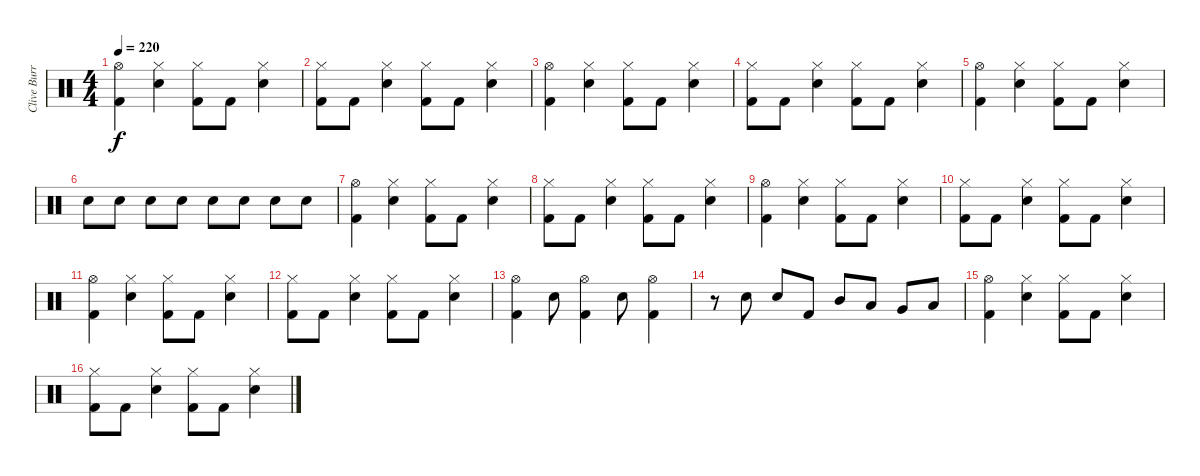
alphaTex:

\track ("Clive Burr (Drums)" "Clive Burr") {instrument percussion}
\staff {score}
\articulation defaults
\ts (4 4)
\tempo 220
\clef neutral
\ks c
("Hi-Hat (open)" "Kick (hit) 2").4{dy f} ("Electric Snare (hit)" "Hi-Hat (closed)").4 ("Hi-Hat (closed)" "Kick (hit) 2").8 "Kick (hit) 2".8 ("Electric Snare (hit)" "Hi-Hat (closed)").4 |
("Hi-Hat (closed)" "Kick (hit) 2").8 "Kick (hit) 2".8 ("Electric Snare (hit)" "Hi-Hat (closed)").4 ("Hi-Hat (closed)" "Kick (hit) 2").8 "Kick (hit) 2".8 ("Electric Snare (hit)" "Hi-Hat (closed)").4 |
("Hi-Hat (open)" "Kick (hit) 2").4 ("Electric Snare (hit)" "Hi-Hat (closed)").4 ("Hi-Hat (closed)" "Kick (hit) 2").8 "Kick (hit) 2".8 ("Electric Snare (hit)" "Hi-Hat (closed)").4 |
("Hi-Hat (closed)" "Kick (hit) 2").8 "Kick (hit) 2".8 ("Electric Snare (hit)" "Hi-Hat (closed)").4 ("Hi-Hat (closed)" "Kick (hit) 2").8 "Kick (hit) 2".8 ("Electric Snare (hit)" "Hi-Hat (closed)").4 |
("Hi-Hat (open)" "Kick (hit) 2").4 ("Electric Snare (hit)" "Hi-Hat (closed)").4 ("Hi-Hat (closed)" "Kick (hit) 2").8 "Kick (hit) 2".8 ("Electric Snare (hit)" "Hi-Hat (closed)").4 |
"Electric Snare (hit)".8 "Electric Snare (hit)".8 "Electric Snare (hit)".8 "Electric Snare (hit)".8 "Electric Snare (hit)".8 "Electric Snare (hit)".8 "Electric Snare (hit)".8 "Electric Snare (hit)".8 |
("Hi-Hat (open)" "Kick (hit) 2").4 ("Electric Snare (hit)" "Hi-Hat (closed)").4 ("Hi-Hat (closed)" "Kick (hit) 2").8 "Kick (hit) 2".8 ("Electric Snare (hit)" "Hi-Hat (closed)").4 |
("Hi-Hat (closed)" "Kick (hit) 2").8 "Kick (hit) 2".8 ("Electric Snare (hit)" "Hi-Hat (closed)").4 ("Hi-Hat (closed)" "Kick (hit) 2").8 "Kick (hit) 2".8 ("Electric Snare (hit)" "Hi-Hat (closed)").4 |
("Hi-Hat (open)" "Kick (hit) 2").4 ("Electric Snare (hit)" "Hi-Hat (closed)").4 ("Hi-Hat (closed)" "Kick (hit) 2").8 "Kick (hit) 2".8 ("Electric Snare (hit)" "Hi-Hat (closed)").4 |
("Hi-Hat (closed)" "Kick (hit) 2").8 "Kick (hit) 2".8 ("Electric Snare (hit)" "Hi-Hat (closed)").4 ("Hi-Hat (closed)" "Kick (hit) 2").8 "Kick (hit) 2".8 ("Electric Snare (hit)" "Hi-Hat (closed)").4 |
("Hi-Hat (open)" "Kick (hit) 2").4 ("Electric Snare (hit)" "Hi-Hat (closed)").4 ("Hi-Hat (closed)" "Kick (hit) 2").8 "Kick (hit) 2".8 ("Electric Snare (hit)" "Hi-Hat (closed)").4 |
("Hi-Hat (closed)" "Kick (hit) 2").8 "Kick (hit) 2".8 ("Electric Snare (hit)" "Hi-Hat (closed)").4 ("Hi-Hat (closed)" "Kick (hit) 2").8 "Kick (hit) 2".8 ("Electric Snare (hit)" "Hi-Hat (closed)").4 |
("Hi-Hat (open)" "Kick (hit) 2").4 "Electric Snare (hit)".8 ("Hi-Hat (open)" "Kick (hit) 2").4 "Electric Snare (hit)".8 ("Hi-Hat (open)" "Kick (hit) 2").4 |
r.8 "Electric Snare (hit)".8 "Electric Snare (hit)".8 "Kick (hit) 2".8 "Mid Tom (hit)".8 "Low Tom (hit)".8 "Very Low Tom (hit)".8 "Low Tom (hit)".8 |
("Hi-Hat (open)" "Kick (hit) 2").4 ("Electric Snare (hit)" "Hi-Hat (closed)").4 ("Hi-Hat (closed)" "Kick (hit) 2").8 "Kick (hit) 2".8 ("Electric Snare (hit)" "Hi-Hat (closed)").4 |
("Hi-Hat (closed)" "Kick (hit) 2").8 "Kick (hit) 2".8 ("Electric Snare (hit)" "Hi-Hat (closed)").4 ("Hi-Hat (closed)" "Kick (hit) 2").8 "Kick (hit) 2".8 ("Electric Snare (hit)" "Hi-Hat (closed)").4
